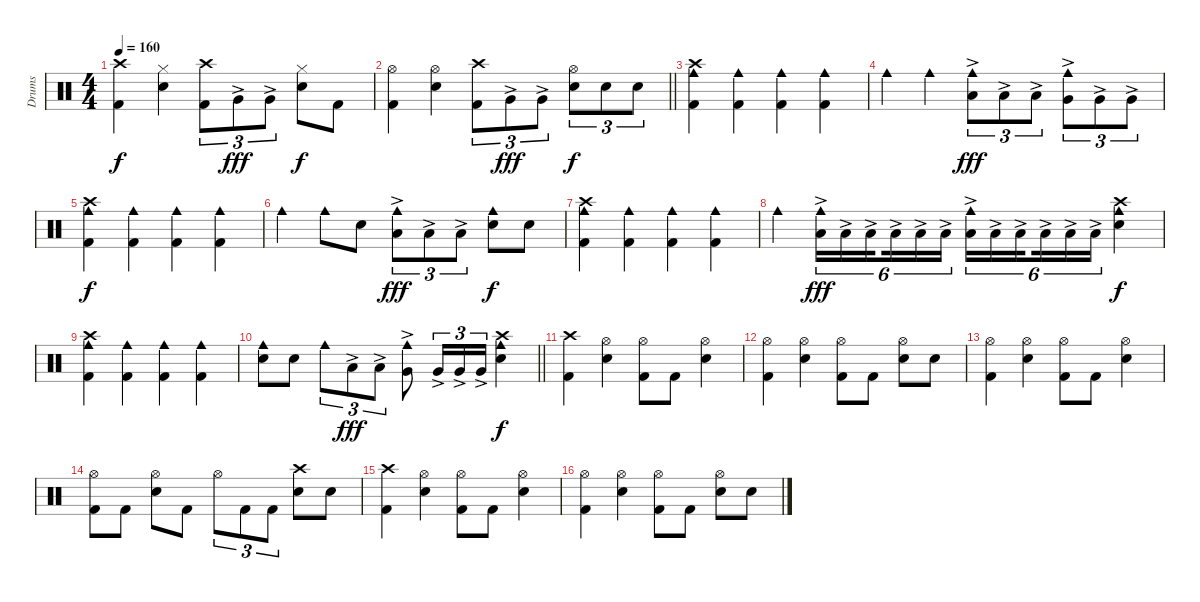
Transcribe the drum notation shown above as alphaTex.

\track ("Drums" "Drums") {instrument percussion}
\staff {score}
\articulation defaults
\ts (4 4)
\tempo 160
\clef neutral
\ks c
("Crash high (hit)" "Kick (hit) 2").4{dy f} ("Hi-Hat (closed)" "Snare (hit) 2").4 ("Crash high (hit)" "Kick (hit) 2").8{tu (3 2)} "Very Low Tom (hit)"{ac}.8{tu (3 2) dy fff} "Very Low Tom (hit)"{ac}.8{tu (3 2)} ("Hi-Hat (closed)" "Snare (hit) 2").8{dy f} "Kick (hit) 2".8 |
\barLineRight lightlight
("Hi-Hat (open)" "Kick (hit) 2").4 ("Hi-Hat (open)" "Snare (hit) 2").4 ("Crash high (hit)" "Kick (hit) 2").8{tu (3 2)} "Very Low Tom (hit)"{ac}.8{tu (3 2) dy fff} "Very Low Tom (hit)"{ac}.8{tu (3 2)} ("Hi-Hat (open)" "Snare (hit) 2").8{tu (3 2) dy f} "Snare (hit) 2".8{tu (3 2)} "Snare (hit) 2".8{tu (3 2)} |
("Crash high (hit)" "Cowbell medium (hit)" "Kick (hit) 2").4 ("Cowbell medium (hit)" "Kick (hit) 2").4 ("Cowbell medium (hit)" "Kick (hit) 2").4 ("Cowbell medium (hit)" "Kick (hit) 2").4 |
"Cowbell medium (hit)".4 "Cowbell medium (hit)".4 ("Cowbell medium (hit)" "Low Tom (hit)"{ac}).8{tu (3 2) dy fff} "Low Tom (hit)"{ac}.8{tu (3 2)} "Low Tom (hit)"{ac}.8{tu (3 2)} ("Cowbell medium (hit)" "Very Low Tom (hit)"{ac}).8{tu (3 2)} "Very Low Tom (hit)"{ac}.8{tu (3 2)} "Very Low Tom (hit)"{ac}.8{tu (3 2)} |
("Crash high (hit)" "Cowbell medium (hit)" "Kick (hit) 2").4{dy f} ("Cowbell medium (hit)" "Kick (hit) 2").4 ("Cowbell medium (hit)" "Kick (hit) 2").4 ("Cowbell medium (hit)" "Kick (hit) 2").4 |
"Cowbell medium (hit)".4 "Cowbell medium (hit)".8 "Snare (hit) 2".8 ("Cowbell medium (hit)" "Low Tom (hit)"{ac}).8{tu (3 2) dy fff} "Low Tom (hit)"{ac}.8{tu (3 2)} "Low Tom (hit)"{ac}.8{tu (3 2)} ("Cowbell medium (hit)" "Snare (hit) 2").8{dy f} "Snare (hit) 2".8 |
("Crash high (hit)" "Cowbell medium (hit)" "Kick (hit) 2").4 ("Cowbell medium (hit)" "Kick (hit) 2").4 ("Cowbell medium (hit)" "Kick (hit) 2").4 ("Cowbell medium (hit)" "Kick (hit) 2").4 |
"Cowbell medium (hit)".4 ("Cowbell medium (hit)" "Low Tom (hit)"{ac}).16{tu (6 4) dy fff} "Low Tom (hit)"{ac}.16{tu (6 4)} "Low Tom (hit)"{ac}.16{tu (6 4) beam splitsecondary} "Low Tom (hit)"{ac}.16{tu (6 4)} "Low Tom (hit)"{ac}.16{tu (6 4)} "Low Tom (hit)"{ac}.16{tu (6 4)} ("Cowbell medium (hit)" "Low Tom (hit)"{ac}).16{tu (6 4)} "Low Tom (hit)"{ac}.16{tu (6 4)} "Low Tom (hit)"{ac}.16{tu (6 4) beam splitsecondary} "Low Tom (hit)"{ac}.16{tu (6 4)} "Low Tom (hit)"{ac}.16{tu (6 4)} "Low Tom (hit)"{ac}.16{tu (6 4)} ("Crash high (hit)" "Cowbell medium (hit)" "Snare (hit) 2").4{dy f} |
("Crash high (hit)" "Cowbell medium (hit)" "Kick (hit) 2").4 ("Cowbell medium (hit)" "Kick (hit) 2").4 ("Cowbell medium (hit)" "Kick (hit) 2").4 ("Cowbell medium (hit)" "Kick (hit) 2").4 |
\barLineRight lightlight
("Cowbell medium (hit)" "Snare (hit) 2").8 "Snare (hit) 2".8 "Cowbell medium (hit)".8{tu (3 2)} "Low Tom (hit)"{ac}.8{tu (3 2) dy fff} "Low Tom (hit)"{ac}.8{tu (3 2)} ("Cowbell medium (hit)" "Very Low Tom (hit)"{ac}).8 "Very Low Tom (hit)"{ac}.16{tu (3 2)} "Very Low Tom (hit)"{ac}.16{tu (3 2)} "Very Low Tom (hit)"{ac}.16{tu (3 2)} ("Crash high (hit)" "Cowbell medium (hit)" "Snare (hit) 2").4{dy f} |
("Crash high (hit)" "Kick (hit) 2").4 ("Hi-Hat (open)" "Snare (hit) 2").4 ("Hi-Hat (open)" "Kick (hit) 2").8 "Kick (hit) 2".8 ("Hi-Hat (open)" "Snare (hit) 2").4 |
("Hi-Hat (open)" "Kick (hit) 2").4 ("Hi-Hat (open)" "Snare (hit) 2").4 ("Hi-Hat (open)" "Kick (hit) 2").8 "Kick (hit) 2".8 ("Hi-Hat (open)" "Snare (hit) 2").8 "Snare (hit) 2".8 |
("Hi-Hat (open)" "Kick (hit) 2").4 ("Hi-Hat (open)" "Snare (hit) 2").4 ("Hi-Hat (open)" "Kick (hit) 2").8 "Kick (hit) 2".8 ("Hi-Hat (open)" "Snare (hit) 2").4 |
("Hi-Hat (open)" "Kick (hit) 2").8 "Kick (hit) 2".8 ("Hi-Hat (open)" "Snare (hit) 2").8 "Kick (hit) 2".8 "Hi-Hat (open)".8{tu (3 2)} "Kick (hit) 2".8{tu (3 2)} "Kick (hit) 2".8{tu (3 2)} ("Crash high (hit)" "Snare (hit) 2").8 "Snare (hit) 2".8 |
("Crash high (hit)" "Kick (hit) 2").4 ("Hi-Hat (open)" "Snare (hit) 2").4 ("Hi-Hat (open)" "Kick (hit) 2").8 "Kick (hit) 2".8 ("Hi-Hat (open)" "Snare (hit) 2").4 |
("Hi-Hat (open)" "Kick (hit) 2").4 ("Hi-Hat (open)" "Snare (hit) 2").4 ("Hi-Hat (open)" "Kick (hit) 2").8 "Kick (hit) 2".8 ("Hi-Hat (open)" "Snare (hit) 2").8 "Snare (hit) 2".8
